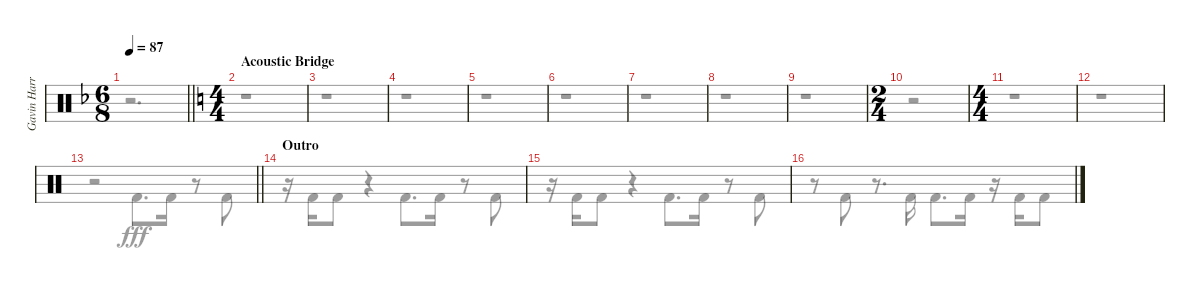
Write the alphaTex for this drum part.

\track ("Gavin Harrison Bass Pedal" "Gavin Harr") {instrument percussion}
\staff {score}
\articulation defaults
\voice
\ts (6 8)
\tempo 87
\clef neutral
\barLineRight lightlight
\ks f
|
\ts (4 4)
\section ("" "Acoustic Bridge")
\ks aminor
|
|
|
|
|
|
|
|
\ts (2 4)
|
\ts (4 4)
|
|
\barLineRight lightlight
|
\section ("" "Outro")
|
|
\voice
\clef neutral
\barLineRight lightlight
\ks f
r.2{d dy fff} |
\ks aminor
r.1 |
r.1 |
r.1 |
r.1 |
r.1 |
r.1 |
r.1 |
r.1 |
r.2 |
r.1 |
r.1 |
\barLineRight lightlight
r.2 "Kick (hit) 2".8{d} "Kick (hit) 2".16 r.8 "Kick (hit) 2".8 |
r.16 "Kick (hit) 2".16 "Kick (hit) 2".8 r.4 "Kick (hit) 2".8{d} "Kick (hit) 2".16 r.8 "Kick (hit) 2".8 |
r.16 "Kick (hit) 2".16 "Kick (hit) 2".8 r.4 "Kick (hit) 2".8{d} "Kick (hit) 2".16 r.8 "Kick (hit) 2".8 |
r.8 "Kick (hit) 2".8 r.8{d} "Kick (hit) 2".16 "Kick (hit) 2".8{d} "Kick (hit) 2".16 r.16 "Kick (hit) 2".16 "Kick (hit) 2".8
